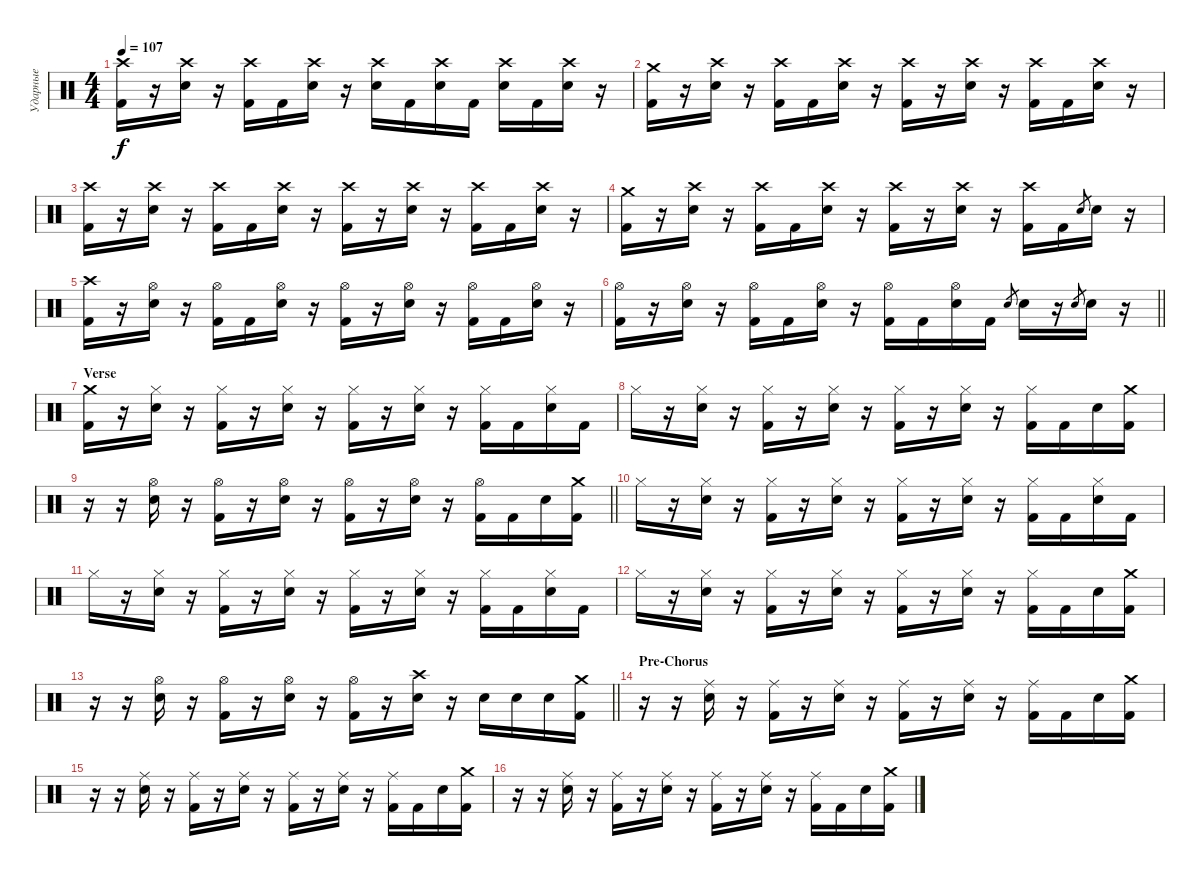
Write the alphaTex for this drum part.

\track ("Ударные" "Ударные") {instrument percussion}
\staff {score}
\articulation defaults
\ts (4 4)
\tempo 107
\clef neutral
\ks c
("Crash high (hit)" "Kick (hit) 2").16{dy f} r.16 ("Crash high (hit)" "Electric Snare (hit)").16 r.16 ("Crash high (hit)" "Kick (hit) 2").16 "Kick (hit) 2".16 ("Crash high (hit)" "Electric Snare (hit)").16 r.16 ("Crash high (hit)" "Electric Snare (hit)").16 "Kick (hit) 2".16 ("Crash high (hit)" "Electric Snare (hit)").16 "Kick (hit) 2".16 ("Crash high (hit)" "Electric Snare (hit)").16 "Kick (hit) 2".16 ("Crash high (hit)" "Electric Snare (hit)").16 r.16 |
("Crash medium (hit)" "Kick (hit) 2").16 r.16 ("Crash high (hit)" "Electric Snare (hit)").16 r.16 ("Crash high (hit)" "Kick (hit) 2").16 "Kick (hit) 2".16 ("Crash high (hit)" "Electric Snare (hit)").16 r.16 ("Crash high (hit)" "Kick (hit) 2").16 r.16 ("Crash high (hit)" "Electric Snare (hit)").16 r.16 ("Crash high (hit)" "Kick (hit) 2").16 "Kick (hit) 2".16 ("Crash high (hit)" "Electric Snare (hit)").16 r.16 |
("Crash high (hit)" "Kick (hit) 2").16 r.16 ("Crash high (hit)" "Electric Snare (hit)").16 r.16 ("Crash high (hit)" "Kick (hit) 2").16 "Kick (hit) 2".16 ("Crash high (hit)" "Electric Snare (hit)").16 r.16 ("Crash high (hit)" "Kick (hit) 2").16 r.16 ("Crash high (hit)" "Electric Snare (hit)").16 r.16 ("Crash high (hit)" "Kick (hit) 2").16 "Kick (hit) 2".16 ("Crash high (hit)" "Electric Snare (hit)").16 r.16 |
("Crash medium (hit)" "Kick (hit) 2").16 r.16 ("Crash high (hit)" "Electric Snare (hit)").16 r.16 ("Crash high (hit)" "Kick (hit) 2").16 "Kick (hit) 2".16 ("Crash high (hit)" "Electric Snare (hit)").16 r.16 ("Crash high (hit)" "Kick (hit) 2").16 r.16 ("Crash high (hit)" "Electric Snare (hit)").16 r.16 ("Crash high (hit)" "Kick (hit) 2").16 "Kick (hit) 2".16 "Electric Snare (hit)".8{gr} "Electric Snare (hit)".16 r.16 |
("Crash high (hit)" "Kick (hit) 2").16 r.16 ("Hi-Hat (open)" "Electric Snare (hit)").16 r.16 ("Hi-Hat (open)" "Kick (hit) 2").16 "Kick (hit) 2".16 ("Hi-Hat (open)" "Electric Snare (hit)").16 r.16 ("Hi-Hat (open)" "Kick (hit) 2").16 r.16 ("Hi-Hat (open)" "Electric Snare (hit)").16 r.16 ("Hi-Hat (open)" "Kick (hit) 2").16 "Kick (hit) 2".16 ("Hi-Hat (open)" "Electric Snare (hit)").16 r.16 |
\barLineRight lightlight
("Hi-Hat (open)" "Kick (hit) 2").16 r.16 ("Hi-Hat (open)" "Electric Snare (hit)").16 r.16 ("Hi-Hat (open)" "Kick (hit) 2").16 "Kick (hit) 2".16 ("Hi-Hat (open)" "Electric Snare (hit)").16 r.16 ("Hi-Hat (open)" "Kick (hit) 2").16 "Kick (hit) 2".16 ("Hi-Hat (open)" "Electric Snare (hit)").16 "Kick (hit) 2".16 "Electric Snare (hit)".8{gr} "Electric Snare (hit)".16 r.16 "Electric Snare (hit)".8{gr} "Electric Snare (hit)".16 r.16 |
\section ("" "Verse")
("Crash medium (hit)" "Kick (hit) 2").16 r.16 ("Hi-Hat (closed)" "Electric Snare (hit)").16 r.16 ("Hi-Hat (closed)" "Kick (hit) 2").16 r.16 ("Hi-Hat (closed)" "Electric Snare (hit)").16 r.16 ("Hi-Hat (closed)" "Kick (hit) 2").16 r.16 ("Hi-Hat (closed)" "Electric Snare (hit)").16 r.16 ("Hi-Hat (closed)" "Kick (hit) 2").16 "Kick (hit) 2".16 ("Hi-Hat (closed)" "Electric Snare (hit)").16 "Kick (hit) 2".16 |
"Hi-Hat (closed)".16 r.16 ("Hi-Hat (closed)" "Electric Snare (hit)").16 r.16 ("Hi-Hat (closed)" "Kick (hit) 2").16 r.16 ("Hi-Hat (closed)" "Electric Snare (hit)").16 r.16 ("Hi-Hat (closed)" "Kick (hit) 2").16 r.16 ("Hi-Hat (closed)" "Electric Snare (hit)").16 r.16 ("Hi-Hat (closed)" "Kick (hit) 2").16 "Kick (hit) 2".16 "Electric Snare (hit)".16 ("Crash medium (hit)" "Kick (hit) 2").16 |
\barLineRight lightlight
r.16 r.16 ("Hi-Hat (open)" "Electric Snare (hit)").16 r.16 ("Hi-Hat (open)" "Kick (hit) 2").16 r.16 ("Hi-Hat (open)" "Electric Snare (hit)").16 r.16 ("Hi-Hat (open)" "Kick (hit) 2").16 r.16 ("Hi-Hat (open)" "Electric Snare (hit)").16 r.16 ("Hi-Hat (open)" "Kick (hit) 2").16 "Kick (hit) 2".16 "Electric Snare (hit)".16 ("Crash medium (hit)" "Kick (hit) 2").16 |
"Hi-Hat (closed)".16 r.16 ("Hi-Hat (closed)" "Electric Snare (hit)").16 r.16 ("Hi-Hat (closed)" "Kick (hit) 2").16 r.16 ("Hi-Hat (closed)" "Electric Snare (hit)").16 r.16 ("Hi-Hat (closed)" "Kick (hit) 2").16 r.16 ("Hi-Hat (closed)" "Electric Snare (hit)").16 r.16 ("Hi-Hat (closed)" "Kick (hit) 2").16 "Kick (hit) 2".16 ("Hi-Hat (closed)" "Electric Snare (hit)").16 "Kick (hit) 2".16 |
"Hi-Hat (closed)".16 r.16 ("Hi-Hat (closed)" "Electric Snare (hit)").16 r.16 ("Hi-Hat (closed)" "Kick (hit) 2").16 r.16 ("Hi-Hat (closed)" "Electric Snare (hit)").16 r.16 ("Hi-Hat (closed)" "Kick (hit) 2").16 r.16 ("Hi-Hat (closed)" "Electric Snare (hit)").16 r.16 ("Hi-Hat (closed)" "Kick (hit) 2").16 "Kick (hit) 2".16 ("Hi-Hat (closed)" "Electric Snare (hit)").16 "Kick (hit) 2".16 |
"Hi-Hat (closed)".16 r.16 ("Hi-Hat (closed)" "Electric Snare (hit)").16 r.16 ("Hi-Hat (closed)" "Kick (hit) 2").16 r.16 ("Hi-Hat (closed)" "Electric Snare (hit)").16 r.16 ("Hi-Hat (closed)" "Kick (hit) 2").16 r.16 ("Hi-Hat (closed)" "Electric Snare (hit)").16 r.16 ("Hi-Hat (closed)" "Kick (hit) 2").16 "Kick (hit) 2".16 "Electric Snare (hit)".16 ("Crash medium (hit)" "Kick (hit) 2").16 |
\barLineRight lightlight
r.16 r.16 ("Hi-Hat (open)" "Electric Snare (hit)").16 r.16 ("Hi-Hat (open)" "Kick (hit) 2").16 r.16 ("Hi-Hat (open)" "Electric Snare (hit)").16 r.16 ("Hi-Hat (open)" "Kick (hit) 2").16 r.16 ("Crash high (hit)" "Electric Snare (hit)").16 r.16 "Electric Snare (hit)".16 "Electric Snare (hit)".16 "Electric Snare (hit)".16 ("Crash medium (hit)" "Kick (hit) 2").16 |
\section ("" "Pre-Chorus")
r.16 r.16 ("Ride (middle)" "Electric Snare (hit)").16 r.16 ("Ride (middle)" "Kick (hit) 2").16 r.16 ("Ride (middle)" "Electric Snare (hit)").16 r.16 ("Ride (middle)" "Kick (hit) 2").16 r.16 ("Ride (middle)" "Electric Snare (hit)").16 r.16 ("Ride (middle)" "Kick (hit) 2").16 "Kick (hit) 2".16 "Electric Snare (hit)".16 ("Crash medium (hit)" "Kick (hit) 2").16 |
r.16 r.16 ("Ride (middle)" "Electric Snare (hit)").16 r.16 ("Ride (middle)" "Kick (hit) 2").16 r.16 ("Ride (middle)" "Electric Snare (hit)").16 r.16 ("Ride (middle)" "Kick (hit) 2").16 r.16 ("Ride (middle)" "Electric Snare (hit)").16 r.16 ("Ride (middle)" "Kick (hit) 2").16 "Kick (hit) 2".16 "Electric Snare (hit)".16 ("Crash medium (hit)" "Kick (hit) 2").16 |
r.16 r.16 ("Ride (middle)" "Electric Snare (hit)").16 r.16 ("Ride (middle)" "Kick (hit) 2").16 r.16 ("Ride (middle)" "Electric Snare (hit)").16 r.16 ("Ride (middle)" "Kick (hit) 2").16 r.16 ("Ride (middle)" "Electric Snare (hit)").16 r.16 ("Ride (middle)" "Kick (hit) 2").16 "Kick (hit) 2".16 "Electric Snare (hit)".16 ("Crash medium (hit)" "Kick (hit) 2").16
